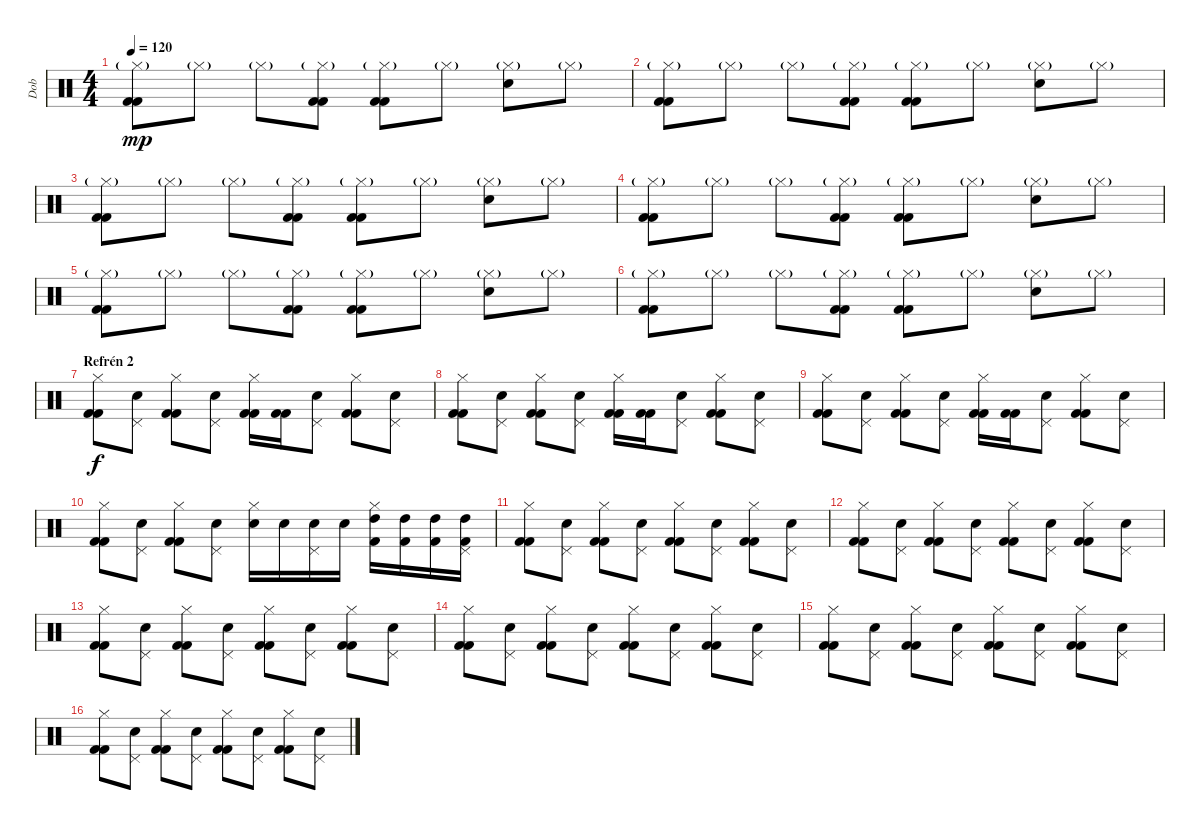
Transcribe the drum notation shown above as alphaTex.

\track ("Dob" "Dob") {instrument percussion}
\staff {score}
\articulation defaults
\ts (4 4)
\tempo 120
\clef neutral
\ks c
("Hi-Hat (closed)"{g} "Kick (hit) 2" "Kick (hit) 2").8{dy mp} "Hi-Hat (closed)"{g}.8 "Hi-Hat (closed)"{g}.8 ("Hi-Hat (closed)"{g} "Kick (hit) 2" "Kick (hit) 2").8 ("Hi-Hat (closed)"{g} "Kick (hit) 2" "Kick (hit) 2").8 "Hi-Hat (closed)"{g}.8 ("Hi-Hat (closed)"{g} "Snare (hit) 2").8 "Hi-Hat (closed)"{g}.8 |
("Hi-Hat (closed)"{g} "Kick (hit) 2" "Kick (hit) 2").8 "Hi-Hat (closed)"{g}.8 "Hi-Hat (closed)"{g}.8 ("Hi-Hat (closed)"{g} "Kick (hit) 2" "Kick (hit) 2").8 ("Hi-Hat (closed)"{g} "Kick (hit) 2" "Kick (hit) 2").8 "Hi-Hat (closed)"{g}.8 ("Hi-Hat (closed)"{g} "Snare (hit) 2").8 "Hi-Hat (closed)"{g}.8 |
("Hi-Hat (closed)"{g} "Kick (hit) 2" "Kick (hit) 2").8 "Hi-Hat (closed)"{g}.8 "Hi-Hat (closed)"{g}.8 ("Hi-Hat (closed)"{g} "Kick (hit) 2" "Kick (hit) 2").8 ("Hi-Hat (closed)"{g} "Kick (hit) 2" "Kick (hit) 2").8 "Hi-Hat (closed)"{g}.8 ("Hi-Hat (closed)"{g} "Snare (hit) 2").8 "Hi-Hat (closed)"{g}.8 |
("Hi-Hat (closed)"{g} "Kick (hit) 2" "Kick (hit) 2").8 "Hi-Hat (closed)"{g}.8 "Hi-Hat (closed)"{g}.8 ("Hi-Hat (closed)"{g} "Kick (hit) 2" "Kick (hit) 2").8 ("Hi-Hat (closed)"{g} "Kick (hit) 2" "Kick (hit) 2").8 "Hi-Hat (closed)"{g}.8 ("Hi-Hat (closed)"{g} "Snare (hit) 2").8 "Hi-Hat (closed)"{g}.8 |
("Hi-Hat (closed)"{g} "Kick (hit) 2" "Kick (hit) 2").8 "Hi-Hat (closed)"{g}.8 "Hi-Hat (closed)"{g}.8 ("Hi-Hat (closed)"{g} "Kick (hit) 2" "Kick (hit) 2").8 ("Hi-Hat (closed)"{g} "Kick (hit) 2" "Kick (hit) 2").8 "Hi-Hat (closed)"{g}.8 ("Hi-Hat (closed)"{g} "Snare (hit) 2").8 "Hi-Hat (closed)"{g}.8 |
("Hi-Hat (closed)"{g} "Kick (hit) 2" "Kick (hit) 2").8 "Hi-Hat (closed)"{g}.8 "Hi-Hat (closed)"{g}.8 ("Hi-Hat (closed)"{g} "Kick (hit) 2" "Kick (hit) 2").8 ("Hi-Hat (closed)"{g} "Kick (hit) 2" "Kick (hit) 2").8 "Hi-Hat (closed)"{g}.8 ("Hi-Hat (closed)"{g} "Snare (hit) 2").8 "Hi-Hat (closed)"{g}.8 |
\section ("" "Refrén 2")
("Hi-Hat (closed)" "Kick (hit) 2" "Kick (hit) 2").8{dy f} ("Pedal Hi-Hat (hit)" "Snare (hit) 2").8 ("Hi-Hat (closed)" "Kick (hit) 2" "Kick (hit) 2").8 ("Pedal Hi-Hat (hit)" "Snare (hit) 2").8 ("Hi-Hat (closed)" "Kick (hit) 2" "Kick (hit) 2").16 ("Kick (hit) 2" "Kick (hit) 2").16 ("Pedal Hi-Hat (hit)" "Snare (hit) 2").8 ("Hi-Hat (closed)" "Kick (hit) 2" "Kick (hit) 2").8 ("Pedal Hi-Hat (hit)" "Snare (hit) 2").8 |
("Hi-Hat (closed)" "Kick (hit) 2" "Kick (hit) 2").8 ("Pedal Hi-Hat (hit)" "Snare (hit) 2").8 ("Hi-Hat (closed)" "Kick (hit) 2" "Kick (hit) 2").8 ("Pedal Hi-Hat (hit)" "Snare (hit) 2").8 ("Hi-Hat (closed)" "Kick (hit) 2" "Kick (hit) 2").16 ("Kick (hit) 2" "Kick (hit) 2").16 ("Pedal Hi-Hat (hit)" "Snare (hit) 2").8 ("Hi-Hat (closed)" "Kick (hit) 2" "Kick (hit) 2").8 ("Pedal Hi-Hat (hit)" "Snare (hit) 2").8 |
("Hi-Hat (closed)" "Kick (hit) 2" "Kick (hit) 2").8 ("Pedal Hi-Hat (hit)" "Snare (hit) 2").8 ("Hi-Hat (closed)" "Kick (hit) 2" "Kick (hit) 2").8 ("Pedal Hi-Hat (hit)" "Snare (hit) 2").8 ("Hi-Hat (closed)" "Kick (hit) 2" "Kick (hit) 2").16 ("Kick (hit) 2" "Kick (hit) 2").16 ("Pedal Hi-Hat (hit)" "Snare (hit) 2").8 ("Hi-Hat (closed)" "Kick (hit) 2" "Kick (hit) 2").8 ("Pedal Hi-Hat (hit)" "Snare (hit) 2").8 |
("Hi-Hat (closed)" "Kick (hit) 2" "Kick (hit) 2").8 ("Pedal Hi-Hat (hit)" "Snare (hit) 2").8 ("Hi-Hat (closed)" "Kick (hit) 2" "Kick (hit) 2").8 ("Pedal Hi-Hat (hit)" "Snare (hit) 2").8 ("Hi-Hat (closed)" "Snare (hit) 2").16 "Snare (hit) 2".16 ("Pedal Hi-Hat (hit)" "Snare (hit) 2").16 "Snare (hit) 2".16 ("Hi-Hat (closed)" "Kick (hit) 2" "High Tom (hit)").16 ("Kick (hit) 2" "High Tom (hit)").16 ("Kick (hit) 2" "High Tom (hit)").16 ("Pedal Hi-Hat (hit)" "Kick (hit) 2" "High Tom (hit)").16 |
("Hi-Hat (closed)" "Kick (hit) 2" "Kick (hit) 2").8 ("Pedal Hi-Hat (hit)" "Snare (hit) 2").8 ("Hi-Hat (closed)" "Kick (hit) 2" "Kick (hit) 2").8 ("Pedal Hi-Hat (hit)" "Snare (hit) 2").8 ("Hi-Hat (closed)" "Kick (hit) 2" "Kick (hit) 2").8 ("Pedal Hi-Hat (hit)" "Snare (hit) 2").8 ("Hi-Hat (closed)" "Kick (hit) 2" "Kick (hit) 2").8 ("Pedal Hi-Hat (hit)" "Snare (hit) 2").8 |
("Hi-Hat (closed)" "Kick (hit) 2" "Kick (hit) 2").8 ("Pedal Hi-Hat (hit)" "Snare (hit) 2").8 ("Hi-Hat (closed)" "Kick (hit) 2" "Kick (hit) 2").8 ("Pedal Hi-Hat (hit)" "Snare (hit) 2").8 ("Hi-Hat (closed)" "Kick (hit) 2" "Kick (hit) 2").8 ("Pedal Hi-Hat (hit)" "Snare (hit) 2").8 ("Hi-Hat (closed)" "Kick (hit) 2" "Kick (hit) 2").8 ("Pedal Hi-Hat (hit)" "Snare (hit) 2").8 |
("Hi-Hat (closed)" "Kick (hit) 2" "Kick (hit) 2").8 ("Pedal Hi-Hat (hit)" "Snare (hit) 2").8 ("Hi-Hat (closed)" "Kick (hit) 2" "Kick (hit) 2").8 ("Pedal Hi-Hat (hit)" "Snare (hit) 2").8 ("Hi-Hat (closed)" "Kick (hit) 2" "Kick (hit) 2").8 ("Pedal Hi-Hat (hit)" "Snare (hit) 2").8 ("Hi-Hat (closed)" "Kick (hit) 2" "Kick (hit) 2").8 ("Pedal Hi-Hat (hit)" "Snare (hit) 2").8 |
("Hi-Hat (closed)" "Kick (hit) 2" "Kick (hit) 2").8 ("Pedal Hi-Hat (hit)" "Snare (hit) 2").8 ("Hi-Hat (closed)" "Kick (hit) 2" "Kick (hit) 2").8 ("Pedal Hi-Hat (hit)" "Snare (hit) 2").8 ("Hi-Hat (closed)" "Kick (hit) 2" "Kick (hit) 2").8 ("Pedal Hi-Hat (hit)" "Snare (hit) 2").8 ("Hi-Hat (closed)" "Kick (hit) 2" "Kick (hit) 2").8 ("Pedal Hi-Hat (hit)" "Snare (hit) 2").8 |
("Hi-Hat (closed)" "Kick (hit) 2" "Kick (hit) 2").8 ("Pedal Hi-Hat (hit)" "Snare (hit) 2").8 ("Hi-Hat (closed)" "Kick (hit) 2" "Kick (hit) 2").8 ("Pedal Hi-Hat (hit)" "Snare (hit) 2").8 ("Hi-Hat (closed)" "Kick (hit) 2" "Kick (hit) 2").8 ("Pedal Hi-Hat (hit)" "Snare (hit) 2").8 ("Hi-Hat (closed)" "Kick (hit) 2" "Kick (hit) 2").8 ("Pedal Hi-Hat (hit)" "Snare (hit) 2").8 |
("Hi-Hat (closed)" "Kick (hit) 2" "Kick (hit) 2").8 ("Pedal Hi-Hat (hit)" "Snare (hit) 2").8 ("Hi-Hat (closed)" "Kick (hit) 2" "Kick (hit) 2").8 ("Pedal Hi-Hat (hit)" "Snare (hit) 2").8 ("Hi-Hat (closed)" "Kick (hit) 2" "Kick (hit) 2").8 ("Pedal Hi-Hat (hit)" "Snare (hit) 2").8 ("Hi-Hat (closed)" "Kick (hit) 2" "Kick (hit) 2").8 ("Pedal Hi-Hat (hit)" "Snare (hit) 2").8
